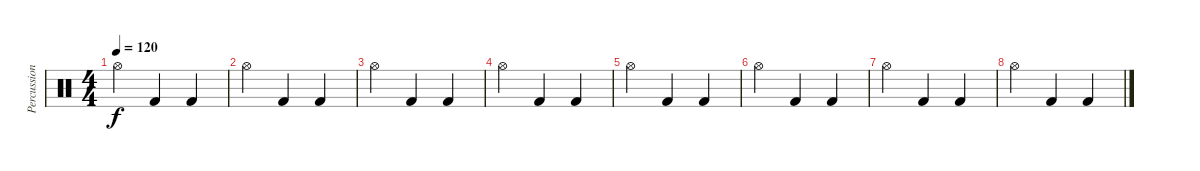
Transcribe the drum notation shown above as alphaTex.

\track ("Percussion" "Percussion") {instrument percussion}
\staff {score}
\articulation defaults
\ts (4 4)
\tempo 120
\clef neutral
\ks c "Hi-Hat (open)".4{dy f} "Kick (hit) 2".4 "Kick (hit) 2".4
|
"Hi-Hat (open)".4 "Kick (hit) 2".4 "Kick (hit) 2".4 |
"Hi-Hat (open)".4 "Kick (hit) 2".4 "Kick (hit) 2".4 |
"Hi-Hat (open)".4 "Kick (hit) 2".4 "Kick (hit) 2".4 |
"Hi-Hat (open)".4 "Kick (hit) 2".4 "Kick (hit) 2".4 |
"Hi-Hat (open)".4 "Kick (hit) 2".4 "Kick (hit) 2".4 |
"Hi-Hat (open)".4 "Kick (hit) 2".4 "Kick (hit) 2".4 |
"Hi-Hat (open)".4 "Kick (hit) 2".4 "Kick (hit) 2".4
